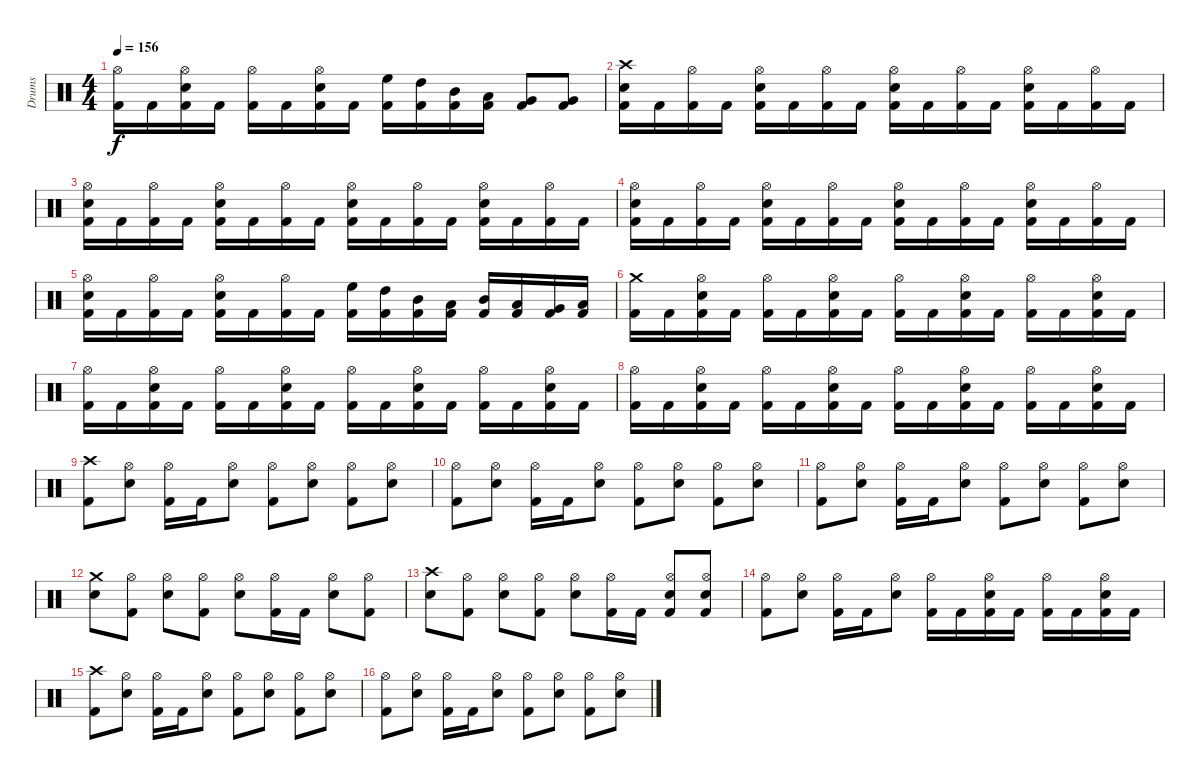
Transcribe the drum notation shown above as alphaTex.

\track ("Drums" "Drums") {instrument percussion}
\staff {score}
\articulation defaults
\ts (4 4)
\tempo 156
\clef neutral
\ks c
("Kick (hit) 2" "Hi-Hat (open)").16{dy f} "Kick (hit) 2".16 ("Kick (hit) 2" "Snare (hit) 2" "Hi-Hat (open)").16 "Kick (hit) 2".16 ("Kick (hit) 2" "Hi-Hat (open)").16 "Kick (hit) 2".16 ("Kick (hit) 2" "Snare (hit) 2" "Hi-Hat (open)").16 "Kick (hit) 2".16 ("Kick (hit) 2" "High Floor Tom (hit)").16 ("Kick (hit) 2" "High Tom (hit)").16 ("Kick (hit) 2" "Mid Tom (hit)").16 ("Kick (hit) 2" "Low Tom (hit)").16 ("Kick (hit) 2" "Very Low Tom (hit)").8 ("Kick (hit) 2" "Very Low Tom (hit)").8 |
\section ("" "")
("Kick (hit) 2" "Snare (hit) 2" "Crash high (hit)").16 "Kick (hit) 2".16 ("Kick (hit) 2" "Hi-Hat (open)").16 "Kick (hit) 2".16 ("Kick (hit) 2" "Snare (hit) 2" "Hi-Hat (open)").16 "Kick (hit) 2".16 ("Kick (hit) 2" "Hi-Hat (open)").16 "Kick (hit) 2".16 ("Kick (hit) 2" "Snare (hit) 2" "Hi-Hat (open)").16 "Kick (hit) 2".16 ("Kick (hit) 2" "Hi-Hat (open)").16 "Kick (hit) 2".16 ("Kick (hit) 2" "Snare (hit) 2" "Hi-Hat (open)").16 "Kick (hit) 2".16 ("Kick (hit) 2" "Hi-Hat (open)").16 "Kick (hit) 2".16 |
("Kick (hit) 2" "Snare (hit) 2" "Hi-Hat (open)").16 "Kick (hit) 2".16 ("Kick (hit) 2" "Hi-Hat (open)").16 "Kick (hit) 2".16 ("Kick (hit) 2" "Snare (hit) 2" "Hi-Hat (open)").16 "Kick (hit) 2".16 ("Kick (hit) 2" "Hi-Hat (open)").16 "Kick (hit) 2".16 ("Kick (hit) 2" "Snare (hit) 2" "Hi-Hat (open)").16 "Kick (hit) 2".16 ("Kick (hit) 2" "Hi-Hat (open)").16 "Kick (hit) 2".16 ("Kick (hit) 2" "Snare (hit) 2" "Hi-Hat (open)").16 "Kick (hit) 2".16 ("Kick (hit) 2" "Hi-Hat (open)").16 "Kick (hit) 2".16 |
("Kick (hit) 2" "Snare (hit) 2" "Hi-Hat (open)").16 "Kick (hit) 2".16 ("Kick (hit) 2" "Hi-Hat (open)").16 "Kick (hit) 2".16 ("Kick (hit) 2" "Snare (hit) 2" "Hi-Hat (open)").16 "Kick (hit) 2".16 ("Kick (hit) 2" "Hi-Hat (open)").16 "Kick (hit) 2".16 ("Kick (hit) 2" "Snare (hit) 2" "Hi-Hat (open)").16 "Kick (hit) 2".16 ("Kick (hit) 2" "Hi-Hat (open)").16 "Kick (hit) 2".16 ("Kick (hit) 2" "Snare (hit) 2" "Hi-Hat (open)").16 "Kick (hit) 2".16 ("Kick (hit) 2" "Hi-Hat (open)").16 "Kick (hit) 2".16 |
("Kick (hit) 2" "Snare (hit) 2" "Hi-Hat (open)").16 "Kick (hit) 2".16 ("Kick (hit) 2" "Hi-Hat (open)").16 "Kick (hit) 2".16 ("Kick (hit) 2" "Snare (hit) 2" "Hi-Hat (open)").16 "Kick (hit) 2".16 ("Kick (hit) 2" "Hi-Hat (open)").16 "Kick (hit) 2".16 ("Kick (hit) 2" "High Floor Tom (hit)").16 ("Kick (hit) 2" "High Tom (hit)").16 ("Kick (hit) 2" "Mid Tom (hit)").16 ("Kick (hit) 2" "Low Tom (hit)").16 ("Kick (hit) 2" "Mid Tom (hit)").16 ("Kick (hit) 2" "Low Tom (hit)").16 ("Kick (hit) 2" "Very Low Tom (hit)").16 ("Kick (hit) 2" "Low Floor Tom (hit)").16 |
("Kick (hit) 2" "Crash medium (hit)").16 "Kick (hit) 2".16 ("Kick (hit) 2" "Snare (hit) 2" "Hi-Hat (open)").16 "Kick (hit) 2".16 ("Kick (hit) 2" "Hi-Hat (open)").16 "Kick (hit) 2".16 ("Kick (hit) 2" "Snare (hit) 2" "Hi-Hat (open)").16 "Kick (hit) 2".16 ("Kick (hit) 2" "Hi-Hat (open)").16 "Kick (hit) 2".16 ("Kick (hit) 2" "Snare (hit) 2" "Hi-Hat (open)").16 "Kick (hit) 2".16 ("Kick (hit) 2" "Hi-Hat (open)").16 "Kick (hit) 2".16 ("Kick (hit) 2" "Snare (hit) 2" "Hi-Hat (open)").16 "Kick (hit) 2".16 |
("Kick (hit) 2" "Hi-Hat (open)").16 "Kick (hit) 2".16 ("Kick (hit) 2" "Snare (hit) 2" "Hi-Hat (open)").16 "Kick (hit) 2".16 ("Kick (hit) 2" "Hi-Hat (open)").16 "Kick (hit) 2".16 ("Kick (hit) 2" "Snare (hit) 2" "Hi-Hat (open)").16 "Kick (hit) 2".16 ("Kick (hit) 2" "Hi-Hat (open)").16 "Kick (hit) 2".16 ("Kick (hit) 2" "Snare (hit) 2" "Hi-Hat (open)").16 "Kick (hit) 2".16 ("Kick (hit) 2" "Hi-Hat (open)").16 "Kick (hit) 2".16 ("Kick (hit) 2" "Snare (hit) 2" "Hi-Hat (open)").16 "Kick (hit) 2".16 |
("Kick (hit) 2" "Hi-Hat (open)").16 "Kick (hit) 2".16 ("Kick (hit) 2" "Snare (hit) 2" "Hi-Hat (open)").16 "Kick (hit) 2".16 ("Kick (hit) 2" "Hi-Hat (open)").16 "Kick (hit) 2".16 ("Kick (hit) 2" "Snare (hit) 2" "Hi-Hat (open)").16 "Kick (hit) 2".16 ("Kick (hit) 2" "Hi-Hat (open)").16 "Kick (hit) 2".16 ("Kick (hit) 2" "Snare (hit) 2" "Hi-Hat (open)").16 "Kick (hit) 2".16 ("Kick (hit) 2" "Hi-Hat (open)").16 "Kick (hit) 2".16 ("Kick (hit) 2" "Snare (hit) 2" "Hi-Hat (open)").16 "Kick (hit) 2".16 |
\section ("" "")
("Kick (hit) 2" "Crash high (hit)").8 ("Snare (hit) 2" "Hi-Hat (open)").8 ("Kick (hit) 2" "Hi-Hat (open)").16 "Kick (hit) 2".16 ("Snare (hit) 2" "Hi-Hat (open)").8 ("Kick (hit) 2" "Hi-Hat (open)").8 ("Snare (hit) 2" "Hi-Hat (open)").8 ("Kick (hit) 2" "Hi-Hat (open)").8 ("Snare (hit) 2" "Hi-Hat (open)").8 |
("Kick (hit) 2" "Hi-Hat (open)").8 ("Snare (hit) 2" "Hi-Hat (open)").8 ("Kick (hit) 2" "Hi-Hat (open)").16 "Kick (hit) 2".16 ("Snare (hit) 2" "Hi-Hat (open)").8 ("Kick (hit) 2" "Hi-Hat (open)").8 ("Snare (hit) 2" "Hi-Hat (open)").8 ("Kick (hit) 2" "Hi-Hat (open)").8 ("Snare (hit) 2" "Hi-Hat (open)").8 |
("Kick (hit) 2" "Hi-Hat (open)").8 ("Snare (hit) 2" "Hi-Hat (open)").8 ("Kick (hit) 2" "Hi-Hat (open)").16 "Kick (hit) 2".16 ("Snare (hit) 2" "Hi-Hat (open)").8 ("Kick (hit) 2" "Hi-Hat (open)").8 ("Snare (hit) 2" "Hi-Hat (open)").8 ("Kick (hit) 2" "Hi-Hat (open)").8 ("Snare (hit) 2" "Hi-Hat (open)").8 |
("Snare (hit) 2" "Crash medium (hit)").8 ("Kick (hit) 2" "Hi-Hat (open)").8 ("Snare (hit) 2" "Hi-Hat (open)").8 ("Kick (hit) 2" "Hi-Hat (open)").8 ("Snare (hit) 2" "Hi-Hat (open)").8 ("Kick (hit) 2" "Hi-Hat (open)").16 "Kick (hit) 2".16 ("Snare (hit) 2" "Hi-Hat (open)").8 ("Kick (hit) 2" "Hi-Hat (open)").8 |
("Snare (hit) 2" "Crash high (hit)").8 ("Kick (hit) 2" "Hi-Hat (open)").8 ("Snare (hit) 2" "Hi-Hat (open)").8 ("Kick (hit) 2" "Hi-Hat (open)").8 ("Snare (hit) 2" "Hi-Hat (open)").8 ("Kick (hit) 2" "Hi-Hat (open)").16 "Kick (hit) 2".16 ("Kick (hit) 2" "Snare (hit) 2" "Hi-Hat (open)").8 ("Kick (hit) 2" "Snare (hit) 2" "Hi-Hat (open)").8 |
("Kick (hit) 2" "Hi-Hat (open)").8 ("Snare (hit) 2" "Hi-Hat (open)").8 ("Kick (hit) 2" "Hi-Hat (open)").16 "Kick (hit) 2".16 ("Snare (hit) 2" "Hi-Hat (open)").8 ("Kick (hit) 2" "Hi-Hat (open)").16 "Kick (hit) 2".16 ("Kick (hit) 2" "Snare (hit) 2" "Hi-Hat (open)").16 "Kick (hit) 2".16 ("Kick (hit) 2" "Hi-Hat (open)").16 "Kick (hit) 2".16 ("Kick (hit) 2" "Snare (hit) 2" "Hi-Hat (open)").16 "Kick (hit) 2".16 |
("Kick (hit) 2" "Crash high (hit)").8 ("Snare (hit) 2" "Hi-Hat (open)").8 ("Kick (hit) 2" "Hi-Hat (open)").16 "Kick (hit) 2".16 ("Snare (hit) 2" "Hi-Hat (open)").8 ("Kick (hit) 2" "Hi-Hat (open)").8 ("Snare (hit) 2" "Hi-Hat (open)").8 ("Kick (hit) 2" "Hi-Hat (open)").8 ("Snare (hit) 2" "Hi-Hat (open)").8 |
("Kick (hit) 2" "Hi-Hat (open)").8 ("Snare (hit) 2" "Hi-Hat (open)").8 ("Kick (hit) 2" "Hi-Hat (open)").16 "Kick (hit) 2".16 ("Snare (hit) 2" "Hi-Hat (open)").8 ("Kick (hit) 2" "Hi-Hat (open)").8 ("Snare (hit) 2" "Hi-Hat (open)").8 ("Kick (hit) 2" "Hi-Hat (open)").8 ("Snare (hit) 2" "Hi-Hat (open)").8
